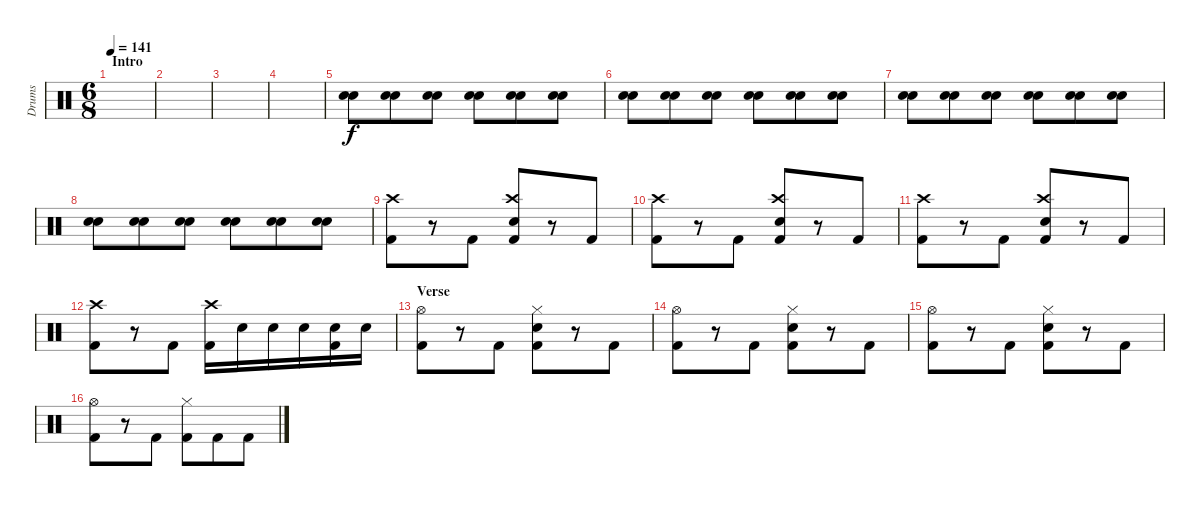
\track ("Drums" "Drums") {instrument percussion}
\staff {score}
\articulation defaults
\ts (6 8)
\section ("" "Intro")
\tempo 141
\clef neutral
\ks c
|
|
|
|
("Electric Snare (hit)" "Electric Snare (hit)").8 ("Electric Snare (hit)" "Electric Snare (hit)").8 ("Electric Snare (hit)" "Electric Snare (hit)").8 ("Electric Snare (hit)" "Electric Snare (hit)").8 ("Electric Snare (hit)" "Electric Snare (hit)").8 ("Electric Snare (hit)" "Electric Snare (hit)").8 |
("Electric Snare (hit)" "Electric Snare (hit)").8 ("Electric Snare (hit)" "Electric Snare (hit)").8 ("Electric Snare (hit)" "Electric Snare (hit)").8 ("Electric Snare (hit)" "Electric Snare (hit)").8 ("Electric Snare (hit)" "Electric Snare (hit)").8 ("Electric Snare (hit)" "Electric Snare (hit)").8 |
("Electric Snare (hit)" "Electric Snare (hit)").8 ("Electric Snare (hit)" "Electric Snare (hit)").8 ("Electric Snare (hit)" "Electric Snare (hit)").8 ("Electric Snare (hit)" "Electric Snare (hit)").8 ("Electric Snare (hit)" "Electric Snare (hit)").8 ("Electric Snare (hit)" "Electric Snare (hit)").8 |
("Electric Snare (hit)" "Electric Snare (hit)").8 ("Electric Snare (hit)" "Electric Snare (hit)").8 ("Electric Snare (hit)" "Electric Snare (hit)").8 ("Electric Snare (hit)" "Electric Snare (hit)").8 ("Electric Snare (hit)" "Electric Snare (hit)").8 ("Electric Snare (hit)" "Electric Snare (hit)").8 |
("Crash high (hit)" "Kick (hit) 2").8 r.8 "Kick (hit) 2".8 ("Crash high (hit)" "Electric Snare (hit)" "Kick (hit) 2").8 r.8 "Kick (hit) 2".8 |
("Crash high (hit)" "Kick (hit) 2").8 r.8 "Kick (hit) 2".8 ("Crash high (hit)" "Electric Snare (hit)" "Kick (hit) 2").8 r.8 "Kick (hit) 2".8 |
("Crash high (hit)" "Kick (hit) 2").8 r.8 "Kick (hit) 2".8 ("Crash high (hit)" "Electric Snare (hit)" "Kick (hit) 2").8 r.8 "Kick (hit) 2".8 |
("Crash high (hit)" "Kick (hit) 2").8 r.8 "Kick (hit) 2".8 ("Crash high (hit)" "Kick (hit) 2").16 "Electric Snare (hit)".16 "Electric Snare (hit)".16 "Electric Snare (hit)".16 ("Electric Snare (hit)" "Kick (hit) 2").16 "Electric Snare (hit)".16 |
\section ("" "Verse")
("Hi-Hat (open)" "Kick (hit) 2").8 r.8 "Kick (hit) 2".8 ("Hi-Hat (closed)" "Electric Snare (hit)" "Kick (hit) 2").8 r.8 "Kick (hit) 2".8 |
("Hi-Hat (open)" "Kick (hit) 2").8 r.8 "Kick (hit) 2".8 ("Hi-Hat (closed)" "Electric Snare (hit)" "Kick (hit) 2").8 r.8 "Kick (hit) 2".8 |
("Hi-Hat (open)" "Kick (hit) 2").8 r.8 "Kick (hit) 2".8 ("Hi-Hat (closed)" "Electric Snare (hit)" "Kick (hit) 2").8 r.8 "Kick (hit) 2".8 |
("Hi-Hat (open)" "Kick (hit) 2").8 r.8 "Kick (hit) 2".8 ("Hi-Hat (closed)" "Kick (hit) 2").8 "Kick (hit) 2".8 "Kick (hit) 2".8
